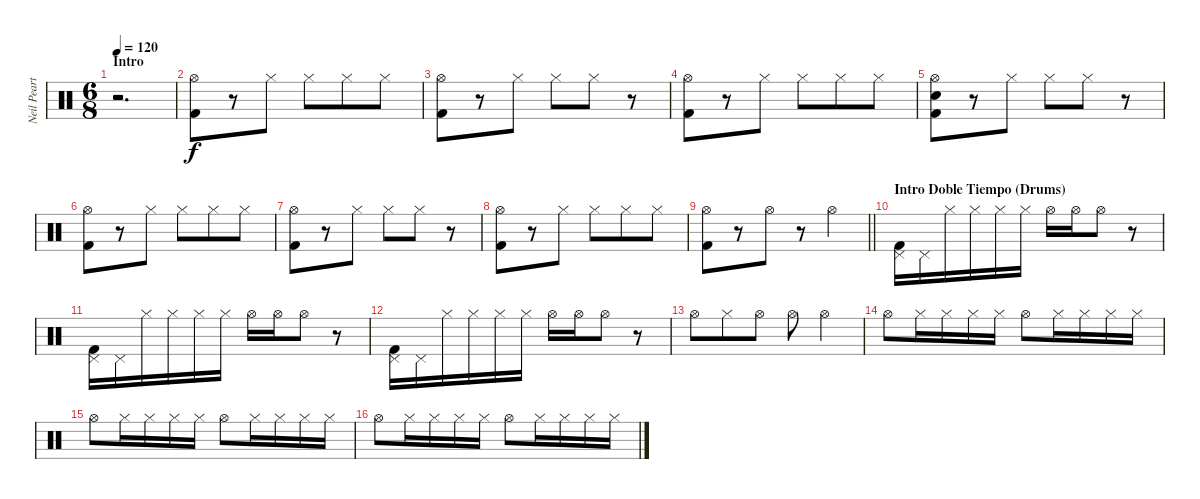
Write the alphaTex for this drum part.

\track ("Neil Peart " "Neil Peart") {instrument percussion bank 49}
\staff {score}
\articulation defaults
\ts (6 8)
\section ("" "Intro")
\tempo 120
\clef neutral
\ks c
r.2{d dy f} |
("Hi-Hat (open)" "Kick (hit) 2").8 r.8 "Hi-Hat (closed)".8 "Hi-Hat (closed)".8 "Hi-Hat (closed)".8 "Hi-Hat (closed)".8 |
("Hi-Hat (open)" "Kick (hit) 2").8 r.8 "Hi-Hat (closed)".8 "Hi-Hat (closed)".8 "Hi-Hat (closed)".8 r.8 |
("Hi-Hat (open)" "Kick (hit) 2").8 r.8 "Hi-Hat (closed)".8 "Hi-Hat (closed)".8 "Hi-Hat (closed)".8 "Hi-Hat (closed)".8 |
("Hi-Hat (open)" "Snare (hit) 2" "Kick (hit) 2").8 r.8 "Hi-Hat (closed)".8 "Hi-Hat (closed)".8 "Hi-Hat (closed)".8 r.8 |
("Hi-Hat (open)" "Kick (hit) 2").8 r.8 "Hi-Hat (closed)".8 "Hi-Hat (closed)".8 "Hi-Hat (closed)".8 "Hi-Hat (closed)".8 |
("Hi-Hat (open)" "Kick (hit) 2").8 r.8 "Hi-Hat (closed)".8 "Hi-Hat (closed)".8 "Hi-Hat (closed)".8 r.8 |
("Hi-Hat (open)" "Kick (hit) 2").8 r.8 "Hi-Hat (closed)".8 "Hi-Hat (closed)".8 "Hi-Hat (closed)".8 "Hi-Hat (closed)".8 |
\barLineRight lightlight
("Hi-Hat (open)" "Kick (hit) 2").8 r.8 "Hi-Hat (open)".8 r.8 "Hi-Hat (open)".4 |
\section ("" "Intro Doble Tiempo (Drums)")
("Pedal Hi-Hat (hit)" "Kick (hit) 2").16 "Pedal Hi-Hat (hit)".16 "Hi-Hat (closed)".16 "Hi-Hat (closed)".16 "Hi-Hat (closed)".16 "Hi-Hat (closed)".16 "Hi-Hat (open)".16 "Hi-Hat (open)".16 "Hi-Hat (open)".8 r.8 |
("Pedal Hi-Hat (hit)" "Kick (hit) 2").16 "Pedal Hi-Hat (hit)".16 "Hi-Hat (closed)".16 "Hi-Hat (closed)".16 "Hi-Hat (closed)".16 "Hi-Hat (closed)".16 "Hi-Hat (open)".16 "Hi-Hat (open)".16 "Hi-Hat (open)".8 r.8 |
("Pedal Hi-Hat (hit)" "Kick (hit) 2").16 "Pedal Hi-Hat (hit)".16 "Hi-Hat (closed)".16 "Hi-Hat (closed)".16 "Hi-Hat (closed)".16 "Hi-Hat (closed)".16 "Hi-Hat (open)".16 "Hi-Hat (open)".16 "Hi-Hat (open)".8 r.8 |
"Hi-Hat (open)".8 "Hi-Hat (closed)".8 "Hi-Hat (open)".8 "Hi-Hat (open)".8 "Hi-Hat (open)".4 |
"Hi-Hat (open)".8 "Hi-Hat (closed)".16 "Hi-Hat (closed)".16 "Hi-Hat (closed)".16 "Hi-Hat (closed)".16 "Hi-Hat (open)".8 "Hi-Hat (closed)".16 "Hi-Hat (closed)".16 "Hi-Hat (closed)".16 "Hi-Hat (closed)".16 |
"Hi-Hat (open)".8 "Hi-Hat (closed)".16 "Hi-Hat (closed)".16 "Hi-Hat (closed)".16 "Hi-Hat (closed)".16 "Hi-Hat (open)".8 "Hi-Hat (closed)".16 "Hi-Hat (closed)".16 "Hi-Hat (closed)".16 "Hi-Hat (closed)".16 |
"Hi-Hat (open)".8 "Hi-Hat (closed)".16 "Hi-Hat (closed)".16 "Hi-Hat (closed)".16 "Hi-Hat (closed)".16 "Hi-Hat (open)".8 "Hi-Hat (closed)".16 "Hi-Hat (closed)".16 "Hi-Hat (closed)".16 "Hi-Hat (closed)".16
